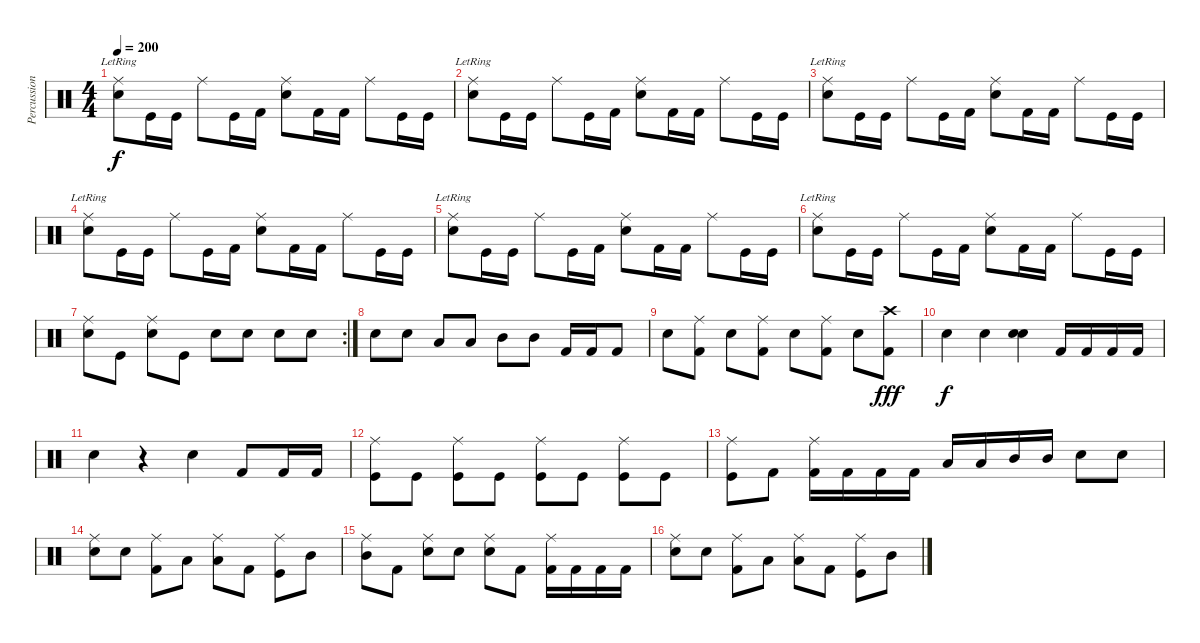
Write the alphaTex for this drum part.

\track ("Percussion" "Percussion") {instrument percussion}
\staff {score}
\articulation defaults
\ts (4 4)
\tempo 200
\clef neutral
\ks c
("Ride (middle)"{lr} "Electric Snare (hit)").8{dy f} "Kick (hit)".16 "Kick (hit)".16 "Ride (middle)".8 "Kick (hit)".16 "Kick (hit) 2".16 ("Ride (middle)" "Electric Snare (hit)").8 "Kick (hit) 2".16 "Kick (hit) 2".16 "Ride (middle)".8 "Kick (hit)".16 "Kick (hit)".16 |
("Ride (middle)"{lr} "Electric Snare (hit)").8 "Kick (hit)".16 "Kick (hit)".16 "Ride (middle)".8 "Kick (hit)".16 "Kick (hit) 2".16 ("Ride (middle)" "Electric Snare (hit)").8 "Kick (hit) 2".16 "Kick (hit) 2".16 "Ride (middle)".8 "Kick (hit)".16 "Kick (hit)".16 |
("Ride (middle)"{lr} "Electric Snare (hit)").8 "Kick (hit)".16 "Kick (hit)".16 "Ride (middle)".8 "Kick (hit)".16 "Kick (hit) 2".16 ("Ride (middle)" "Electric Snare (hit)").8 "Kick (hit) 2".16 "Kick (hit) 2".16 "Ride (middle)".8 "Kick (hit)".16 "Kick (hit)".16 |
("Ride (middle)"{lr} "Electric Snare (hit)").8 "Kick (hit)".16 "Kick (hit)".16 "Ride (middle)".8 "Kick (hit)".16 "Kick (hit) 2".16 ("Ride (middle)" "Electric Snare (hit)").8 "Kick (hit) 2".16 "Kick (hit) 2".16 "Ride (middle)".8 "Kick (hit)".16 "Kick (hit)".16 |
("Ride (middle)"{lr} "Electric Snare (hit)").8 "Kick (hit)".16 "Kick (hit)".16 "Ride (middle)".8 "Kick (hit)".16 "Kick (hit) 2".16 ("Ride (middle)" "Electric Snare (hit)").8 "Kick (hit) 2".16 "Kick (hit) 2".16 "Ride (middle)".8 "Kick (hit)".16 "Kick (hit)".16 |
("Ride (middle)"{lr} "Electric Snare (hit)").8 "Kick (hit)".16 "Kick (hit)".16 "Ride (middle)".8 "Kick (hit)".16 "Kick (hit) 2".16 ("Ride (middle)" "Electric Snare (hit)").8 "Kick (hit) 2".16 "Kick (hit) 2".16 "Ride (middle)".8 "Kick (hit)".16 "Kick (hit)".16 |
\rc 2
("Ride (middle)" "Electric Snare (hit)").8 "Kick (hit)".8 ("Ride (middle)" "Electric Snare (hit)").8 "Kick (hit)".8 "Electric Snare (hit)".8 "Electric Snare (hit)".8 "Electric Snare (hit)".8 "Electric Snare (hit)".8 |
"Electric Snare (hit)".8 "Electric Snare (hit)".8 "Low Tom (hit)".8 "Low Tom (hit)".8 "Mid Tom (hit)".8 "Mid Tom (hit)".8 "Kick (hit) 2".16 "Kick (hit) 2".16 "Kick (hit) 2".8 |
"Electric Snare (hit)".8 ("Ride (middle)" "Kick (hit) 2").8 "Electric Snare (hit)".8 ("Ride (middle)" "Kick (hit) 2").8 "Electric Snare (hit)".8 ("Ride (middle)" "Kick (hit) 2").8 "Electric Snare (hit)".8 ("Crash high (hit)" "Kick (hit) 2").8{dy fff} |
"Electric Snare (hit)".4{dy f} "Electric Snare (hit)".4 ("Electric Snare (hit)" "Electric Snare (hit)").4{bu 480} "Kick (hit) 2".16 "Kick (hit) 2".16 "Kick (hit) 2".16 "Kick (hit) 2".16 |
"Electric Snare (hit)".4 r.4 "Electric Snare (hit)".4 "Kick (hit) 2".8 "Kick (hit) 2".16 "Kick (hit) 2".16 |
("Ride (middle)" "Kick (hit)").8 "Kick (hit)".8 ("Ride (middle)" "Kick (hit)").8 "Kick (hit)".8 ("Ride (middle)" "Kick (hit)").8 "Kick (hit)".8 ("Ride (middle)" "Kick (hit)").8 "Kick (hit)".8 |
("Ride (middle)" "Kick (hit)").8 "Kick (hit) 2".8 ("Ride (middle)" "Kick (hit) 2").16 "Kick (hit) 2".16 "Kick (hit) 2".16 "Kick (hit) 2".16 "Low Tom (hit)".16 "Low Tom (hit)".16 "Mid Tom (hit)".16 "Mid Tom (hit)".16 "Electric Snare (hit)".8 "Electric Snare (hit)".8 |
("Ride (middle)" "Electric Snare (hit)").8 "Electric Snare (hit)".8 ("Ride (middle)" "Kick (hit) 2").8 "Low Tom (hit)".8 ("Ride (middle)" "Low Tom (hit)").8 "Kick (hit) 2".8 ("Ride (middle)" "Kick (hit)").8 "Mid Tom (hit)".8 |
("Ride (middle)" "Mid Tom (hit)").8 "Kick (hit) 2".8 ("Ride (middle)" "Electric Snare (hit)").8 "Electric Snare (hit)".8 ("Ride (middle)" "Electric Snare (hit)").8 "Kick (hit) 2".8 ("Ride (middle)" "Kick (hit) 2").16 "Kick (hit) 2".16 "Kick (hit) 2".16 "Kick (hit) 2".16 |
("Ride (middle)" "Electric Snare (hit)").8 "Electric Snare (hit)".8 ("Ride (middle)" "Kick (hit) 2").8 "Low Tom (hit)".8 ("Ride (middle)" "Low Tom (hit)").8 "Kick (hit) 2".8 ("Ride (middle)" "Kick (hit)").8 "Mid Tom (hit)".8
